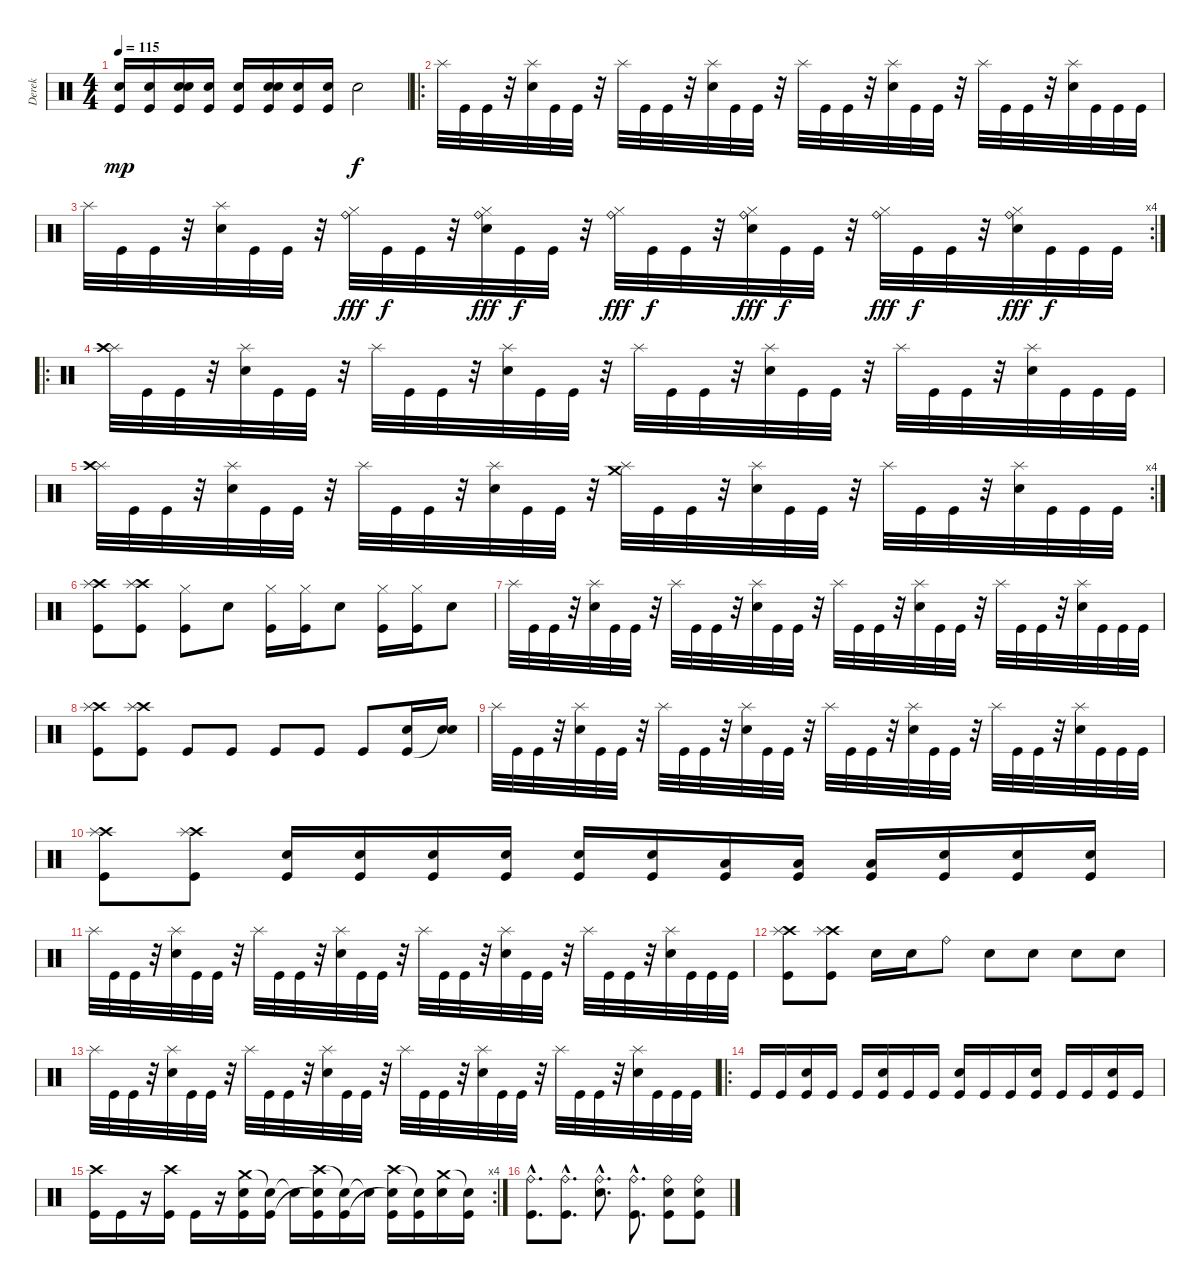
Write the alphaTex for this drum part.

\track ("Derek" "Derek") {instrument percussion}
\staff {score}
\articulation defaults
\ts (4 4)
\tempo 115
\clef neutral
\ks c
("Electric Snare (hit)" "Kick (hit)").16{dy mp} ("Electric Snare (hit)" "Kick (hit)").16 ("Electric Snare (hit)" "Electric Snare (hit)" "Kick (hit)").16 ("Electric Snare (hit)" "Kick (hit)").16 ("Electric Snare (hit)" "Kick (hit)").16 ("Electric Snare (hit)" "Electric Snare (hit)" "Kick (hit)").16 ("Electric Snare (hit)" "Kick (hit)").16 ("Electric Snare (hit)" "Kick (hit)").16 "Electric Snare (hit)".2{dy f} |
\ro "Splash (hit)".32 "Kick (hit)".32 "Kick (hit)".32
r.32 ("Splash (hit)" "Electric Snare (hit)").32 "Kick (hit)".32 "Kick (hit)".32 r.32 "Splash (hit)".32 "Kick (hit)".32 "Kick (hit)".32 r.32 ("Splash (hit)" "Electric Snare (hit)").32 "Kick (hit)".32 "Kick (hit)".32 r.32 "Splash (hit)".32 "Kick (hit)".32 "Kick (hit)".32 r.32 ("Splash (hit)" "Electric Snare (hit)").32 "Kick (hit)".32 "Kick (hit)".32 r.32 "Splash (hit)".32 "Kick (hit)".32 "Kick (hit)".32 r.32 ("Splash (hit)" "Electric Snare (hit)").32 "Kick (hit)".32 "Kick (hit)".32 "Kick (hit)".32 |
\rc 4 "Splash (hit)".32 "Kick (hit)".32 "Kick (hit)".32
r.32 ("Splash (hit)" "Electric Snare (hit)").32 "Kick (hit)".32 "Kick (hit)".32 r.32 ("Ride (bell)" "Hi-Hat (closed)").32{dy fff} "Kick (hit)".32{dy f} "Kick (hit)".32 r.32 ("Ride (bell)" "Electric Snare (hit)" "Hi-Hat (closed)").32{dy fff} "Kick (hit)".32{dy f} "Kick (hit)".32 r.32 ("Ride (bell)" "Hi-Hat (closed)").32{dy fff} "Kick (hit)".32{dy f} "Kick (hit)".32 r.32 ("Ride (bell)" "Electric Snare (hit)" "Hi-Hat (closed)").32{dy fff} "Kick (hit)".32{dy f} "Kick (hit)".32 r.32 ("Ride (bell)" "Hi-Hat (closed)").32{dy fff} "Kick (hit)".32{dy f} "Kick (hit)".32 r.32 ("Ride (bell)" "Electric Snare (hit)" "Hi-Hat (closed)").32{dy fff} "Kick (hit)".32{dy f} "Kick (hit)".32 "Kick (hit)".32 |
\ro
("Splash (hit)" "Crash high (hit)").32 "Kick (hit)".32 "Kick (hit)".32 r.32 ("Splash (hit)" "Electric Snare (hit)").32 "Kick (hit)".32 "Kick (hit)".32 r.32 "Splash (hit)".32 "Kick (hit)".32 "Kick (hit)".32 r.32 ("Splash (hit)" "Electric Snare (hit)").32 "Kick (hit)".32 "Kick (hit)".32 r.32 "Splash (hit)".32 "Kick (hit)".32 "Kick (hit)".32 r.32 ("Splash (hit)" "Electric Snare (hit)").32 "Kick (hit)".32 "Kick (hit)".32 r.32 "Splash (hit)".32 "Kick (hit)".32 "Kick (hit)".32 r.32 ("Splash (hit)" "Electric Snare (hit)").32 "Kick (hit)".32 "Kick (hit)".32 "Kick (hit)".32 |
\rc 4
("Splash (hit)" "Crash high (hit)").32 "Kick (hit)".32 "Kick (hit)".32 r.32 ("Splash (hit)" "Electric Snare (hit)").32 "Kick (hit)".32 "Kick (hit)".32 r.32 "Splash (hit)".32 "Kick (hit)".32 "Kick (hit)".32 r.32 ("Splash (hit)" "Electric Snare (hit)").32 "Kick (hit)".32 "Kick (hit)".32 r.32 ("Splash (hit)" "Crash medium (hit)").32 "Kick (hit)".32 "Kick (hit)".32 r.32 ("Splash (hit)" "Electric Snare (hit)").32 "Kick (hit)".32 "Kick (hit)".32 r.32 "Splash (hit)".32 "Kick (hit)".32 "Kick (hit)".32 r.32 ("Splash (hit)" "Electric Snare (hit)").32 "Kick (hit)".32 "Kick (hit)".32 "Kick (hit)".32 |
("Crash high (hit)" "Splash (hit)" "Kick (hit)").8 ("Crash high (hit)" "Splash (hit)" "Kick (hit)").8 ("Hi-Hat (closed)" "Kick (hit)").8 "Electric Snare (hit)".8 ("Hi-Hat (closed)" "Kick (hit)").16 ("Hi-Hat (closed)" "Kick (hit)").16 "Electric Snare (hit)".8 ("Hi-Hat (closed)" "Kick (hit)").16 ("Hi-Hat (closed)" "Kick (hit)").16 "Electric Snare (hit)".8 |
"Splash (hit)".32 "Kick (hit)".32 "Kick (hit)".32 r.32 ("Splash (hit)" "Electric Snare (hit)").32 "Kick (hit)".32 "Kick (hit)".32 r.32 "Splash (hit)".32 "Kick (hit)".32 "Kick (hit)".32 r.32 ("Splash (hit)" "Electric Snare (hit)").32 "Kick (hit)".32 "Kick (hit)".32 r.32 "Splash (hit)".32 "Kick (hit)".32 "Kick (hit)".32 r.32 ("Splash (hit)" "Electric Snare (hit)").32 "Kick (hit)".32 "Kick (hit)".32 r.32 "Splash (hit)".32 "Kick (hit)".32 "Kick (hit)".32 r.32 ("Splash (hit)" "Electric Snare (hit)").32 "Kick (hit)".32 "Kick (hit)".32 "Kick (hit)".32 |
("Crash high (hit)" "Splash (hit)" "Kick (hit)").8 ("Crash high (hit)" "Splash (hit)" "Kick (hit)").8 "Kick (hit)".8 "Kick (hit)".8 "Kick (hit)".8 "Kick (hit)".8 "Kick (hit)".8 ("Electric Snare (hit)" "Kick (hit)").16 ("Electric Snare (hit)" "Snare (hit)"{t}).16 |
"Splash (hit)".32 "Kick (hit)".32 "Kick (hit)".32 r.32 ("Splash (hit)" "Electric Snare (hit)").32 "Kick (hit)".32 "Kick (hit)".32 r.32 "Splash (hit)".32 "Kick (hit)".32 "Kick (hit)".32 r.32 ("Splash (hit)" "Electric Snare (hit)").32 "Kick (hit)".32 "Kick (hit)".32 r.32 "Splash (hit)".32 "Kick (hit)".32 "Kick (hit)".32 r.32 ("Splash (hit)" "Electric Snare (hit)").32 "Kick (hit)".32 "Kick (hit)".32 r.32 "Splash (hit)".32 "Kick (hit)".32 "Kick (hit)".32 r.32 ("Splash (hit)" "Electric Snare (hit)").32 "Kick (hit)".32 "Kick (hit)".32 "Kick (hit)".32 |
("Crash high (hit)" "Splash (hit)" "Kick (hit)").8 ("Crash high (hit)" "Splash (hit)" "Kick (hit)").8 ("Electric Snare (hit)" "Kick (hit)").16 ("Electric Snare (hit)" "Kick (hit)").16 ("Electric Snare (hit)" "Kick (hit)").16 ("Electric Snare (hit)" "Kick (hit)").16 ("Electric Snare (hit)" "Kick (hit)").16 ("Electric Snare (hit)" "Kick (hit)").16 ("Low Tom (hit)" "Kick (hit)").16 ("Low Tom (hit)" "Kick (hit)").16 ("Low Tom (hit)" "Kick (hit)").16 ("Electric Snare (hit)" "Kick (hit)").16 ("Electric Snare (hit)" "Kick (hit)").16 ("Electric Snare (hit)" "Kick (hit)").16 |
"Splash (hit)".32 "Kick (hit)".32 "Kick (hit)".32 r.32 ("Splash (hit)" "Electric Snare (hit)").32 "Kick (hit)".32 "Kick (hit)".32 r.32 "Splash (hit)".32 "Kick (hit)".32 "Kick (hit)".32 r.32 ("Splash (hit)" "Electric Snare (hit)").32 "Kick (hit)".32 "Kick (hit)".32 r.32 "Splash (hit)".32 "Kick (hit)".32 "Kick (hit)".32 r.32 ("Splash (hit)" "Electric Snare (hit)").32 "Kick (hit)".32 "Kick (hit)".32 r.32 "Splash (hit)".32 "Kick (hit)".32 "Kick (hit)".32 r.32 ("Splash (hit)" "Electric Snare (hit)").32 "Kick (hit)".32 "Kick (hit)".32 "Kick (hit)".32 |
("Crash high (hit)" "Splash (hit)" "Kick (hit)").8 ("Crash high (hit)" "Splash (hit)" "Kick (hit)").8 "Electric Snare (hit)".16 "Electric Snare (hit)".16 "Ride (bell)".8 "Electric Snare (hit)".8 "Electric Snare (hit)".8 "Electric Snare (hit)".8 "Electric Snare (hit)".8 |
"Splash (hit)".32 "Kick (hit)".32 "Kick (hit)".32 r.32 ("Splash (hit)" "Electric Snare (hit)").32 "Kick (hit)".32 "Kick (hit)".32 r.32 "Splash (hit)".32 "Kick (hit)".32 "Kick (hit)".32 r.32 ("Splash (hit)" "Electric Snare (hit)").32 "Kick (hit)".32 "Kick (hit)".32 r.32 "Splash (hit)".32 "Kick (hit)".32 "Kick (hit)".32 r.32 ("Splash (hit)" "Electric Snare (hit)").32 "Kick (hit)".32 "Kick (hit)".32 r.32 "Splash (hit)".32 "Kick (hit)".32 "Kick (hit)".32 r.32 ("Splash (hit)" "Electric Snare (hit)").32 "Kick (hit)".32 "Kick (hit)".32 "Kick (hit)".32 |
\ro "Kick (hit)".16 "Kick (hit)".16
("Electric Snare (hit)" "Kick (hit)").16 "Kick (hit)".16 "Kick (hit)".16 ("Electric Snare (hit)" "Kick (hit)").16 "Kick (hit)".16 "Kick (hit)".16 ("Electric Snare (hit)" "Kick (hit)").16 "Kick (hit)".16 "Kick (hit)".16 ("Electric Snare (hit)" "Kick (hit)").16 "Kick (hit)".16 "Kick (hit)".16 ("Electric Snare (hit)" "Kick (hit)").16 "Kick (hit)".16 |
\rc 4
("Crash high (hit)" "Kick (hit)").16 "Kick (hit)".16 r.16 ("Crash high (hit)" "Kick (hit)").16 "Kick (hit)".16 r.16 ("Crash medium (hit)" "Electric Snare (hit)" "Kick (hit)").16 ("Snare (hit)"{t} "Kick (hit)").16 "Snare (hit)"{t}.16 ("Crash high (hit)" "Electric Snare (hit)"{t} "Kick (hit)").16 ("Snare (hit)"{t} "Kick (hit)").16 "Snare (hit)"{t}.16 ("Crash high (hit)" "Electric Snare (hit)"{t} "Kick (hit)").16 ("Snare (hit)"{t} "Kick (hit)").16 ("Crash medium (hit)" "Electric Snare (hit)").16 ("Snare (hit)"{t} "Kick (hit)").16 |
("Ride (bell)"{hac} "Kick (hit)"{hac}).8{d} ("Ride (bell)"{hac} "Kick (hit)"{hac}).8{d} ("Ride (bell)"{hac} "Electric Snare (hit)"{hac}).8{d} ("Ride (bell)"{hac} "Kick (hit)"{hac}).8{d} ("Ride (bell)" "Electric Snare (hit)" "Kick (hit)").8 ("Ride (bell)" "Electric Snare (hit)" "Kick (hit)").8
